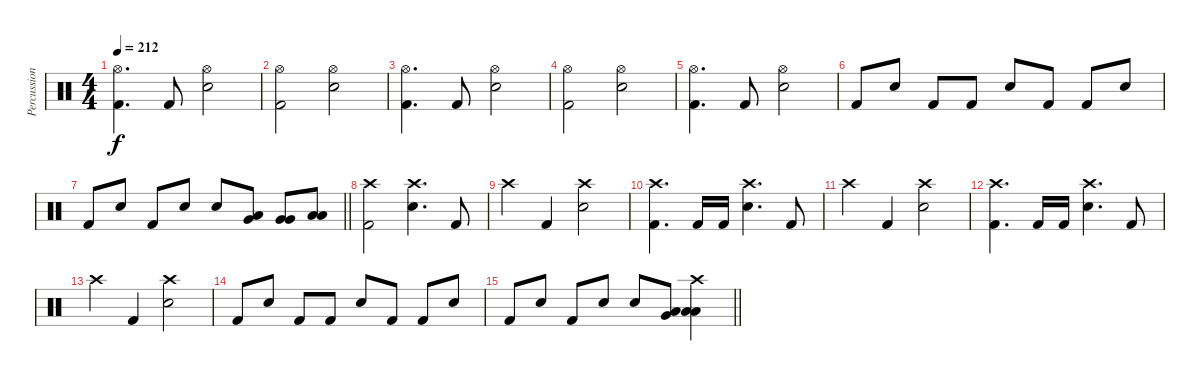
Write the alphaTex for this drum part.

\track ("Percussions" "Percussion") {instrument percussion}
\staff {score}
\articulation defaults
\ts (4 4)
\tempo 212
\clef neutral
\ks c
("Hi-Hat (open)" "Kick (hit) 2").4{d dy f} "Kick (hit) 2".8 ("Hi-Hat (open)" "Snare (hit) 2").2 |
("Hi-Hat (open)" "Kick (hit) 2").2 ("Hi-Hat (open)" "Snare (hit) 2").2 |
("Hi-Hat (open)" "Kick (hit) 2").4{d} "Kick (hit) 2".8 ("Hi-Hat (open)" "Snare (hit) 2").2 |
("Hi-Hat (open)" "Kick (hit) 2").2 ("Hi-Hat (open)" "Snare (hit) 2").2 |
("Hi-Hat (open)" "Kick (hit) 2").4{d} "Kick (hit) 2".8 ("Hi-Hat (open)" "Snare (hit) 2").2 |
"Kick (hit) 2".8 "Snare (hit) 2".8 "Kick (hit) 2".8 "Kick (hit) 2".8 "Snare (hit) 2".8 "Kick (hit) 2".8 "Kick (hit) 2".8 "Snare (hit) 2".8 |
\barLineRight lightlight "Kick (hit) 2".8 "Snare (hit) 2".8 "Kick (hit) 2".8 "Snare (hit) 2".8 "Snare (hit) 2".8
("Low Tom (hit)" "Very Low Tom (hit)").8 ("Very Low Tom (hit)" "Very Low Tom (hit)").8 ("Low Floor Tom (hit)" "Low Floor Tom (hit)").8 |
("Crash high (hit)" "Kick (hit) 2").2 ("Crash high (hit)" "Snare (hit) 2").4{d} "Kick (hit) 2".8 |
"Crash high (hit)".4 "Kick (hit) 2".4 ("Crash high (hit)" "Snare (hit) 2").2 |
("Crash high (hit)" "Kick (hit) 2").4{d} "Kick (hit) 2".16 "Kick (hit) 2".16 ("Crash high (hit)" "Snare (hit) 2").4{d} "Kick (hit) 2".8 |
"Crash high (hit)".4 "Kick (hit) 2".4 ("Crash high (hit)" "Snare (hit) 2").2 |
("Crash high (hit)" "Kick (hit) 2").4{d} "Kick (hit) 2".16 "Kick (hit) 2".16 ("Crash high (hit)" "Snare (hit) 2").4{d} "Kick (hit) 2".8 |
"Crash high (hit)".4 "Kick (hit) 2".4 ("Crash high (hit)" "Snare (hit) 2").2 |
"Kick (hit) 2".8 "Snare (hit) 2".8 "Kick (hit) 2".8 "Kick (hit) 2".8 "Snare (hit) 2".8 "Kick (hit) 2".8 "Kick (hit) 2".8 "Snare (hit) 2".8 |
\barLineRight lightlight "Kick (hit) 2".8 "Snare (hit) 2".8 "Kick (hit) 2".8 "Snare (hit) 2".8 "Snare (hit) 2".8
("Low Tom (hit)" "Very Low Tom (hit)").8 ("Crash high (hit)" "Low Floor Tom (hit)" "Low Floor Tom (hit)").4
